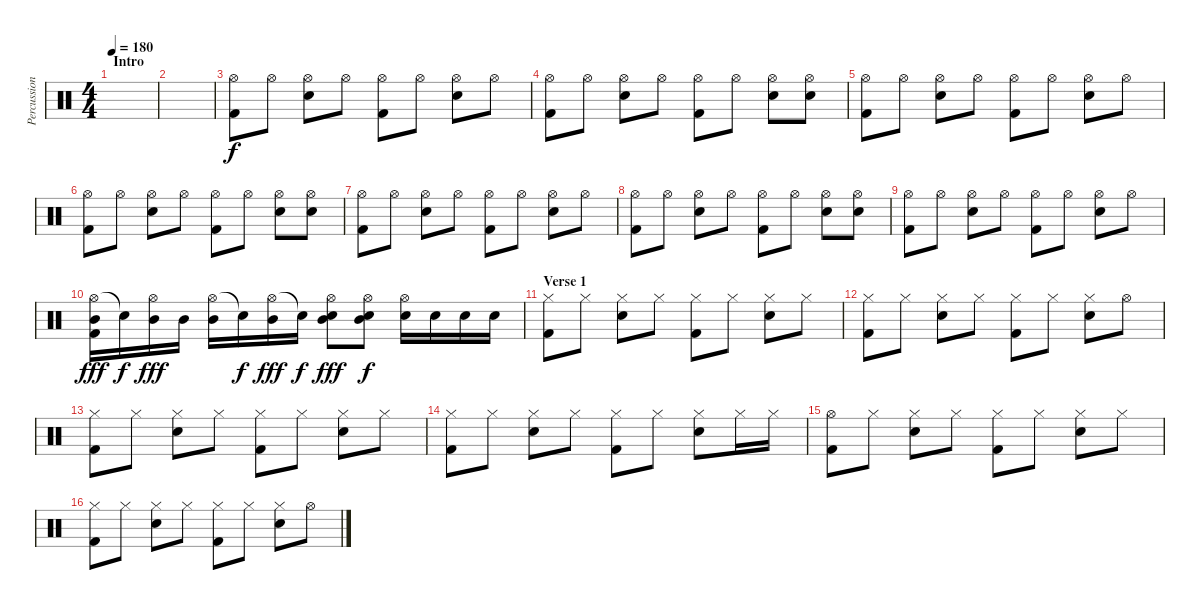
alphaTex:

\track ("Percussion" "Percussion") {instrument percussion}
\staff {score}
\articulation defaults
\ts (4 4)
\section ("" "Intro")
\tempo 180
\clef neutral
\ks c
|
|
("Hi-Hat (open)" "Kick (hit) 2").8 "Hi-Hat (open)".8 ("Hi-Hat (open)" "Electric Snare (hit)").8 "Hi-Hat (open)".8 ("Hi-Hat (open)" "Kick (hit) 2").8 "Hi-Hat (open)".8 ("Hi-Hat (open)" "Electric Snare (hit)").8 "Hi-Hat (open)".8 |
("Hi-Hat (open)" "Kick (hit) 2").8 "Hi-Hat (open)".8 ("Hi-Hat (open)" "Electric Snare (hit)").8 "Hi-Hat (open)".8 ("Hi-Hat (open)" "Kick (hit) 2").8 "Hi-Hat (open)".8 ("Hi-Hat (open)" "Electric Snare (hit)").8 ("Hi-Hat (open)" "Electric Snare (hit)").8 |
("Hi-Hat (open)" "Kick (hit) 2").8 "Hi-Hat (open)".8 ("Hi-Hat (open)" "Electric Snare (hit)").8 "Hi-Hat (open)".8 ("Hi-Hat (open)" "Kick (hit) 2").8 "Hi-Hat (open)".8 ("Hi-Hat (open)" "Electric Snare (hit)").8 "Hi-Hat (open)".8 |
("Hi-Hat (open)" "Kick (hit) 2").8 "Hi-Hat (open)".8 ("Hi-Hat (open)" "Electric Snare (hit)").8 "Hi-Hat (open)".8 ("Hi-Hat (open)" "Kick (hit) 2").8 "Hi-Hat (open)".8 ("Hi-Hat (open)" "Electric Snare (hit)").8 ("Hi-Hat (open)" "Electric Snare (hit)").8 |
("Hi-Hat (open)" "Kick (hit) 2").8 "Hi-Hat (open)".8 ("Hi-Hat (open)" "Electric Snare (hit)").8 "Hi-Hat (open)".8 ("Hi-Hat (open)" "Kick (hit) 2").8 "Hi-Hat (open)".8 ("Hi-Hat (open)" "Electric Snare (hit)").8 "Hi-Hat (open)".8 |
("Hi-Hat (open)" "Kick (hit) 2").8 "Hi-Hat (open)".8 ("Hi-Hat (open)" "Electric Snare (hit)").8 "Hi-Hat (open)".8 ("Hi-Hat (open)" "Kick (hit) 2").8 "Hi-Hat (open)".8 ("Hi-Hat (open)" "Electric Snare (hit)").8 ("Hi-Hat (open)" "Electric Snare (hit)").8 |
("Hi-Hat (open)" "Kick (hit) 2").8 "Hi-Hat (open)".8 ("Hi-Hat (open)" "Electric Snare (hit)").8 "Hi-Hat (open)".8 ("Hi-Hat (open)" "Kick (hit) 2").8 "Hi-Hat (open)".8 ("Hi-Hat (open)" "Electric Snare (hit)").8 "Hi-Hat (open)".8 |
("Hi-Hat (open)" "Mid Tom (hit)" "Kick (hit) 2").16{dy fff} "Electric Snare (hit)"{t}.16{dy f} ("Hi-Hat (open)" "Mid Tom (hit)").16{dy fff} "Mid Tom (hit)".16 ("Hi-Hat (open)" "Mid Tom (hit)").16 "Snare (hit)"{t}.16{dy f} ("Hi-Hat (open)" "Mid Tom (hit)").16{dy fff} "Snare (hit)"{t}.16{dy f} ("Hi-Hat (open)" "Electric Snare (hit)" "Mid Tom (hit)").8{dy fff} ("Hi-Hat (open)" "Electric Snare (hit)" "Mid Tom (hit)").8{dy f} ("Hi-Hat (open)" "Electric Snare (hit)").16 "Electric Snare (hit)".16 "Electric Snare (hit)".16 "Electric Snare (hit)".16 |
\section ("" "Verse 1")
("Hi-Hat (closed)" "Kick (hit) 2").8 "Hi-Hat (closed)".8 ("Hi-Hat (closed)" "Electric Snare (hit)").8 "Hi-Hat (closed)".8 ("Hi-Hat (closed)" "Kick (hit) 2").8 "Hi-Hat (closed)".8 ("Hi-Hat (closed)" "Electric Snare (hit)").8 "Hi-Hat (closed)".8 |
("Hi-Hat (closed)" "Kick (hit) 2").8 "Hi-Hat (closed)".8 ("Hi-Hat (closed)" "Electric Snare (hit)").8 "Hi-Hat (closed)".8 ("Hi-Hat (closed)" "Kick (hit) 2").8 "Hi-Hat (closed)".8 ("Hi-Hat (closed)" "Electric Snare (hit)").8 "Hi-Hat (open)".8 |
("Hi-Hat (closed)" "Kick (hit) 2").8 "Hi-Hat (closed)".8 ("Hi-Hat (closed)" "Electric Snare (hit)").8 "Hi-Hat (closed)".8 ("Hi-Hat (closed)" "Kick (hit) 2").8 "Hi-Hat (closed)".8 ("Hi-Hat (closed)" "Electric Snare (hit)").8 "Hi-Hat (closed)".8 |
("Hi-Hat (closed)" "Kick (hit) 2").8 "Hi-Hat (closed)".8 ("Hi-Hat (closed)" "Electric Snare (hit)").8 "Hi-Hat (closed)".8 ("Hi-Hat (closed)" "Kick (hit) 2").8 "Hi-Hat (closed)".8 ("Hi-Hat (closed)" "Electric Snare (hit)").8 "Hi-Hat (closed)".16 "Hi-Hat (closed)".16 |
("Hi-Hat (open)" "Kick (hit) 2").8 "Hi-Hat (closed)".8 ("Hi-Hat (closed)" "Electric Snare (hit)").8 "Hi-Hat (closed)".8 ("Hi-Hat (closed)" "Kick (hit) 2").8 "Hi-Hat (closed)".8 ("Hi-Hat (closed)" "Electric Snare (hit)").8 "Hi-Hat (closed)".8 |
("Hi-Hat (closed)" "Kick (hit) 2").8 "Hi-Hat (closed)".8 ("Hi-Hat (closed)" "Electric Snare (hit)").8 "Hi-Hat (closed)".8 ("Hi-Hat (closed)" "Kick (hit) 2").8 "Hi-Hat (closed)".8 ("Hi-Hat (closed)" "Electric Snare (hit)").8 "Hi-Hat (open)".8
